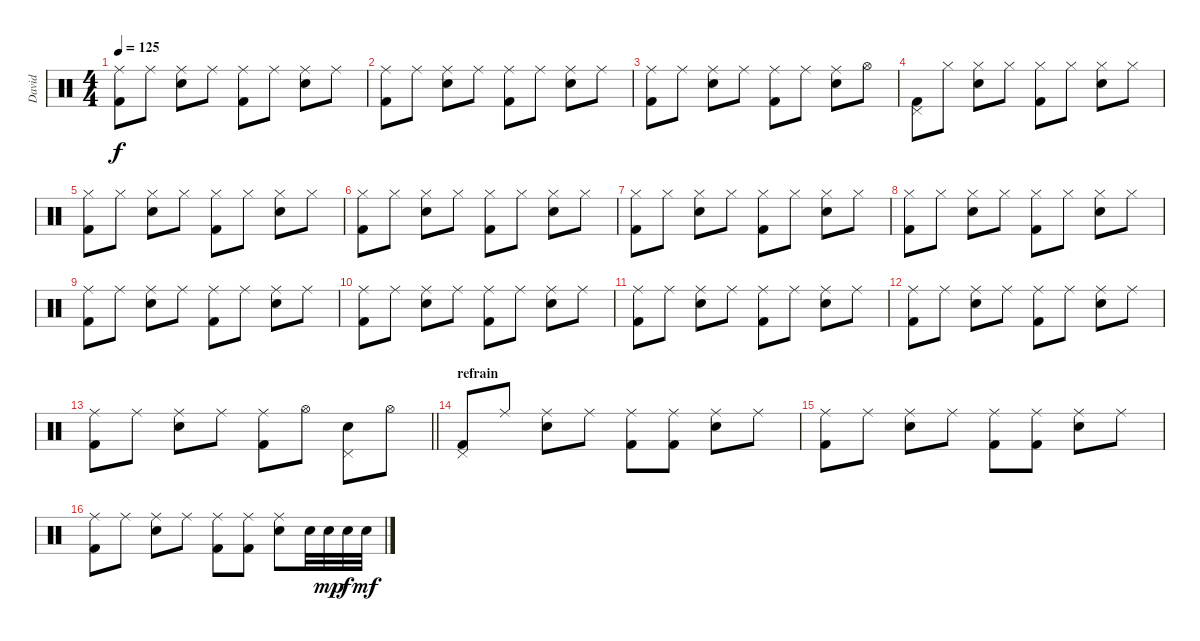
\track ("David" "David") {instrument percussion}
\staff {score}
\articulation defaults
\ts (4 4)
\tempo 125
\clef neutral
\ks c
("Ride (middle)" "Kick (hit) 2").8{dy f} "Ride (middle)".8 ("Ride (middle)" "Electric Snare (hit)").8 "Ride (middle)".8 ("Ride (middle)" "Kick (hit) 2").8 "Ride (middle)".8 ("Ride (middle)" "Electric Snare (hit)").8 "Ride (middle)".8 |
("Ride (middle)" "Kick (hit) 2").8 "Ride (middle)".8 ("Ride (middle)" "Electric Snare (hit)").8 "Ride (middle)".8 ("Ride (middle)" "Kick (hit) 2").8 "Ride (middle)".8 ("Ride (middle)" "Electric Snare (hit)").8 "Ride (middle)".8 |
("Ride (middle)" "Kick (hit) 2").8 "Ride (middle)".8 ("Ride (middle)" "Electric Snare (hit)").8 "Ride (middle)".8 ("Ride (middle)" "Kick (hit) 2").8 "Ride (middle)".8 ("Ride (middle)" "Electric Snare (hit)").8 "Hi-Hat (open)".8 |
("Pedal Hi-Hat (hit)" "Kick (hit) 2").8 "Hi-Hat (closed)".8 ("Hi-Hat (closed)" "Electric Snare (hit)").8 "Hi-Hat (closed)".8 ("Hi-Hat (closed)" "Kick (hit) 2").8 "Hi-Hat (closed)".8 ("Hi-Hat (closed)" "Electric Snare (hit)").8 "Hi-Hat (closed)".8 |
("Hi-Hat (closed)" "Kick (hit) 2").8 "Hi-Hat (closed)".8 ("Hi-Hat (closed)" "Electric Snare (hit)").8 "Hi-Hat (closed)".8 ("Hi-Hat (closed)" "Kick (hit) 2").8 "Hi-Hat (closed)".8 ("Hi-Hat (closed)" "Electric Snare (hit)").8 "Hi-Hat (closed)".8 |
("Hi-Hat (closed)" "Kick (hit) 2").8 "Hi-Hat (closed)".8 ("Hi-Hat (closed)" "Electric Snare (hit)").8 "Hi-Hat (closed)".8 ("Hi-Hat (closed)" "Kick (hit) 2").8 "Hi-Hat (closed)".8 ("Hi-Hat (closed)" "Electric Snare (hit)").8 "Hi-Hat (closed)".8 |
("Hi-Hat (closed)" "Kick (hit) 2").8 "Hi-Hat (closed)".8 ("Hi-Hat (closed)" "Electric Snare (hit)").8 "Hi-Hat (closed)".8 ("Hi-Hat (closed)" "Kick (hit) 2").8 "Hi-Hat (closed)".8 ("Hi-Hat (closed)" "Electric Snare (hit)").8 "Hi-Hat (closed)".8 |
("Hi-Hat (closed)" "Kick (hit) 2").8 "Hi-Hat (closed)".8 ("Hi-Hat (closed)" "Electric Snare (hit)").8 "Hi-Hat (closed)".8 ("Hi-Hat (closed)" "Kick (hit) 2").8 "Hi-Hat (closed)".8 ("Hi-Hat (closed)" "Electric Snare (hit)").8 "Hi-Hat (closed)".8 |
("Ride (middle)" "Kick (hit) 2").8 "Ride (middle)".8 ("Ride (middle)" "Electric Snare (hit)").8 "Ride (middle)".8 ("Ride (middle)" "Kick (hit) 2").8 "Ride (middle)".8 ("Ride (middle)" "Electric Snare (hit)").8 "Ride (middle)".8 |
("Ride (middle)" "Kick (hit) 2").8 "Ride (middle)".8 ("Ride (middle)" "Electric Snare (hit)").8 "Ride (middle)".8 ("Ride (middle)" "Kick (hit) 2").8 "Ride (middle)".8 ("Ride (middle)" "Electric Snare (hit)").8 "Ride (middle)".8 |
("Ride (middle)" "Kick (hit) 2").8 "Ride (middle)".8 ("Ride (middle)" "Electric Snare (hit)").8 "Ride (middle)".8 ("Ride (middle)" "Kick (hit) 2").8 "Ride (middle)".8 ("Ride (middle)" "Electric Snare (hit)").8 "Ride (middle)".8 |
("Ride (middle)" "Kick (hit) 2").8 "Ride (middle)".8 ("Ride (middle)" "Electric Snare (hit)").8 "Ride (middle)".8 ("Ride (middle)" "Kick (hit) 2").8 "Ride (middle)".8 ("Ride (middle)" "Electric Snare (hit)").8 "Ride (middle)".8 |
\barLineRight lightlight
("Ride (middle)" "Kick (hit) 2").8 "Ride (middle)".8 ("Ride (middle)" "Electric Snare (hit)").8 "Ride (middle)".8 ("Ride (middle)" "Kick (hit) 2").8 "Hi-Hat (open)".8 ("Pedal Hi-Hat (hit)" "Electric Snare (hit)").8 "Hi-Hat (open)".8 |
\section ("" "refrain")
("Pedal Hi-Hat (hit)" "Kick (hit) 2").8 "Ride (middle)".8 ("Ride (middle)" "Electric Snare (hit)").8 "Ride (middle)".8 ("Ride (middle)" "Kick (hit) 2").8 ("Ride (middle)" "Kick (hit) 2").8 ("Ride (middle)" "Electric Snare (hit)").8 "Ride (middle)".8 |
("Ride (middle)" "Kick (hit) 2").8 "Ride (middle)".8 ("Ride (middle)" "Electric Snare (hit)").8 "Ride (middle)".8 ("Ride (middle)" "Kick (hit) 2").8 ("Ride (middle)" "Kick (hit) 2").8 ("Ride (middle)" "Electric Snare (hit)").8 "Ride (middle)".8 |
("Ride (middle)" "Kick (hit) 2").8 "Ride (middle)".8 ("Ride (middle)" "Electric Snare (hit)").8 "Ride (middle)".8 ("Ride (middle)" "Kick (hit) 2").8 ("Ride (middle)" "Kick (hit) 2").8 ("Ride (middle)" "Electric Snare (hit)").8 "Electric Snare (hit)".32 "Electric Snare (hit)".32{dy mp} "Electric Snare (hit)".32{dy f} "Electric Snare (hit)".32{dy mf}
